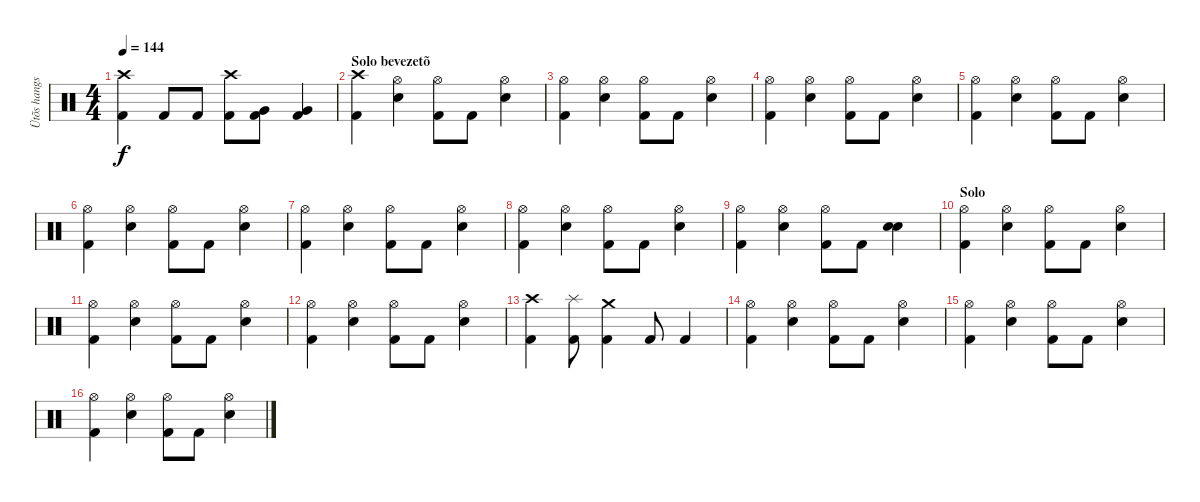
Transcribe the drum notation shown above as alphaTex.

\track ("Ütõs hangszer" "Ütõs hangs") {instrument percussion}
\staff {score}
\articulation defaults
\ts (4 4)
\tempo 144
\clef neutral
\ks c
("Crash high (hit)" "Kick (hit) 2").4{dy f} "Kick (hit) 2".8 "Kick (hit) 2".8 ("Crash high (hit)" "Kick (hit) 2").8 ("Very Low Tom (hit)" "Kick (hit) 2").8 ("Very Low Tom (hit)" "Kick (hit) 2").4 |
\section ("" "Solo bevezetõ")
("Crash high (hit)" "Kick (hit) 2").4 ("Hi-Hat (open)" "Snare (hit) 2").4 ("Hi-Hat (open)" "Kick (hit) 2").8 "Kick (hit) 2".8 ("Hi-Hat (open)" "Snare (hit) 2").4 |
("Hi-Hat (open)" "Kick (hit) 2").4 ("Hi-Hat (open)" "Snare (hit) 2").4 ("Hi-Hat (open)" "Kick (hit) 2").8 "Kick (hit) 2".8 ("Hi-Hat (open)" "Snare (hit) 2").4 |
("Hi-Hat (open)" "Kick (hit) 2").4 ("Hi-Hat (open)" "Snare (hit) 2").4 ("Hi-Hat (open)" "Kick (hit) 2").8 "Kick (hit) 2".8 ("Hi-Hat (open)" "Snare (hit) 2").4 |
("Hi-Hat (open)" "Kick (hit) 2").4 ("Hi-Hat (open)" "Snare (hit) 2").4 ("Hi-Hat (open)" "Kick (hit) 2").8 "Kick (hit) 2".8 ("Hi-Hat (open)" "Snare (hit) 2").4 |
("Hi-Hat (open)" "Kick (hit) 2").4 ("Hi-Hat (open)" "Snare (hit) 2").4 ("Hi-Hat (open)" "Kick (hit) 2").8 "Kick (hit) 2".8 ("Hi-Hat (open)" "Snare (hit) 2").4 |
("Hi-Hat (open)" "Kick (hit) 2").4 ("Hi-Hat (open)" "Snare (hit) 2").4 ("Hi-Hat (open)" "Kick (hit) 2").8 "Kick (hit) 2".8 ("Hi-Hat (open)" "Snare (hit) 2").4 |
("Hi-Hat (open)" "Kick (hit) 2").4 ("Hi-Hat (open)" "Snare (hit) 2").4 ("Hi-Hat (open)" "Kick (hit) 2").8 "Kick (hit) 2".8 ("Hi-Hat (open)" "Snare (hit) 2").4 |
("Hi-Hat (open)" "Kick (hit) 2").4 ("Hi-Hat (open)" "Snare (hit) 2").4 ("Hi-Hat (open)" "Kick (hit) 2").8 "Kick (hit) 2".8 ("Electric Snare (hit)" "Snare (hit) 2").4 |
\section ("" "Solo")
("Hi-Hat (open)" "Kick (hit) 2").4 ("Hi-Hat (open)" "Snare (hit) 2").4 ("Hi-Hat (open)" "Kick (hit) 2").8 "Kick (hit) 2".8 ("Hi-Hat (open)" "Snare (hit) 2").4 |
("Hi-Hat (open)" "Kick (hit) 2").4 ("Hi-Hat (open)" "Snare (hit) 2").4 ("Hi-Hat (open)" "Kick (hit) 2").8 "Kick (hit) 2".8 ("Hi-Hat (open)" "Snare (hit) 2").4 |
("Hi-Hat (open)" "Kick (hit) 2").4 ("Hi-Hat (open)" "Snare (hit) 2").4 ("Hi-Hat (open)" "Kick (hit) 2").8 "Kick (hit) 2".8 ("Hi-Hat (open)" "Snare (hit) 2").4 |
("Crash high (hit)" "Kick (hit) 2").4 ("Splash (hit)" "Kick (hit) 2").8 ("Crash medium (hit)" "Kick (hit) 2").4 "Kick (hit) 2".8 "Kick (hit) 2".4 |
("Hi-Hat (open)" "Kick (hit) 2").4 ("Hi-Hat (open)" "Snare (hit) 2").4 ("Hi-Hat (open)" "Kick (hit) 2").8 "Kick (hit) 2".8 ("Hi-Hat (open)" "Snare (hit) 2").4 |
("Hi-Hat (open)" "Kick (hit) 2").4 ("Hi-Hat (open)" "Snare (hit) 2").4 ("Hi-Hat (open)" "Kick (hit) 2").8 "Kick (hit) 2".8 ("Hi-Hat (open)" "Snare (hit) 2").4 |
("Hi-Hat (open)" "Kick (hit) 2").4 ("Hi-Hat (open)" "Snare (hit) 2").4 ("Hi-Hat (open)" "Kick (hit) 2").8 "Kick (hit) 2".8 ("Hi-Hat (open)" "Snare (hit) 2").4
